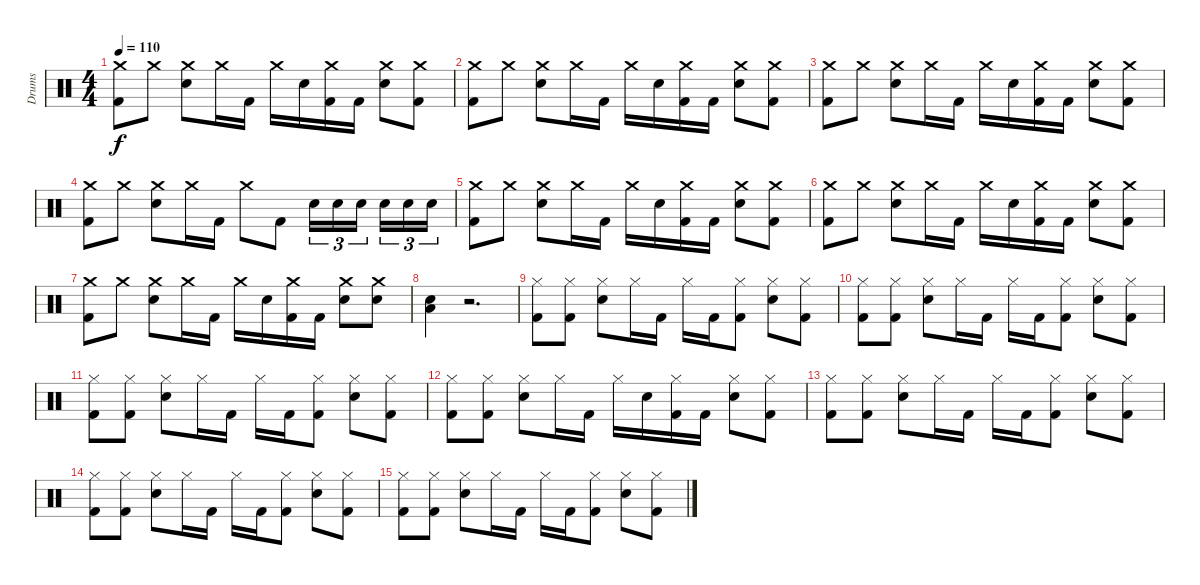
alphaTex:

\track ("Drums" "Drums") {instrument percussion}
\staff {score}
\articulation defaults
\ts (4 4)
\tempo 110
\clef neutral
\ks c
("Crash medium (hit)" "Kick (hit) 2").8{dy f} "Crash medium (hit)".8 ("Crash medium (hit)" "Electric Snare (hit)").8 "Crash medium (hit)".16 "Kick (hit) 2".16 "Crash medium (hit)".16 "Electric Snare (hit)".16 ("Crash medium (hit)" "Kick (hit) 2").16 "Kick (hit) 2".16 ("Crash medium (hit)" "Electric Snare (hit)").8 ("Crash medium (hit)" "Kick (hit) 2").8 |
("Crash medium (hit)" "Kick (hit) 2").8 "Crash medium (hit)".8 ("Crash medium (hit)" "Electric Snare (hit)").8 "Crash medium (hit)".16 "Kick (hit) 2".16 "Crash medium (hit)".16 "Electric Snare (hit)".16 ("Crash medium (hit)" "Kick (hit) 2").16 "Kick (hit) 2".16 ("Crash medium (hit)" "Electric Snare (hit)").8 ("Crash medium (hit)" "Kick (hit) 2").8 |
("Crash medium (hit)" "Kick (hit) 2").8 "Crash medium (hit)".8 ("Crash medium (hit)" "Electric Snare (hit)").8 "Crash medium (hit)".16 "Kick (hit) 2".16 "Crash medium (hit)".16 "Electric Snare (hit)".16 ("Crash medium (hit)" "Kick (hit) 2").16 "Kick (hit) 2".16 ("Crash medium (hit)" "Electric Snare (hit)").8 ("Crash medium (hit)" "Kick (hit) 2").8 |
("Crash medium (hit)" "Kick (hit) 2").8 "Crash medium (hit)".8 ("Crash medium (hit)" "Electric Snare (hit)").8 "Crash medium (hit)".16 "Kick (hit) 2".16 "Crash medium (hit)".8 "Kick (hit) 2".8 "Electric Snare (hit)".16{tu (3 2)} "Electric Snare (hit)".16{tu (3 2)} "Electric Snare (hit)".16{tu (3 2)} "Electric Snare (hit)".16{tu (3 2)} "Electric Snare (hit)".16{tu (3 2)} "Electric Snare (hit)".16{tu (3 2)} |
("Crash medium (hit)" "Kick (hit) 2").8 "Crash medium (hit)".8 ("Crash medium (hit)" "Electric Snare (hit)").8 "Crash medium (hit)".16 "Kick (hit) 2".16 "Crash medium (hit)".16 "Electric Snare (hit)".16 ("Crash medium (hit)" "Kick (hit) 2").16 "Kick (hit) 2".16 ("Crash medium (hit)" "Electric Snare (hit)").8 ("Crash medium (hit)" "Kick (hit) 2").8 |
("Crash medium (hit)" "Kick (hit) 2").8 "Crash medium (hit)".8 ("Crash medium (hit)" "Electric Snare (hit)").8 "Crash medium (hit)".16 "Kick (hit) 2".16 "Crash medium (hit)".16 "Electric Snare (hit)".16 ("Crash medium (hit)" "Kick (hit) 2").16 "Kick (hit) 2".16 ("Crash medium (hit)" "Electric Snare (hit)").8 ("Crash medium (hit)" "Kick (hit) 2").8 |
("Crash medium (hit)" "Kick (hit) 2").8 "Crash medium (hit)".8 ("Crash medium (hit)" "Electric Snare (hit)").8 "Crash medium (hit)".16 "Kick (hit) 2".16 "Crash medium (hit)".16 "Electric Snare (hit)".16 ("Crash medium (hit)" "Kick (hit) 2").16 "Kick (hit) 2".16 ("Crash medium (hit)" "Electric Snare (hit)").8 ("Crash medium (hit)" "Electric Snare (hit)").8 |
("Low Floor Tom (hit)" "Electric Snare (hit)").4 r.2{d} |
("Hi-Hat (closed)" "Kick (hit) 2").8 ("Hi-Hat (closed)" "Kick (hit) 2").8 ("Hi-Hat (closed)" "Electric Snare (hit)").8 "Hi-Hat (closed)".16 "Kick (hit) 2".16 "Hi-Hat (closed)".16 "Kick (hit) 2".16 ("Hi-Hat (closed)" "Kick (hit) 2").8 ("Hi-Hat (closed)" "Electric Snare (hit)").8 ("Hi-Hat (closed)" "Kick (hit) 2").8 |
("Hi-Hat (closed)" "Kick (hit) 2").8 ("Hi-Hat (closed)" "Kick (hit) 2").8 ("Hi-Hat (closed)" "Electric Snare (hit)").8 "Hi-Hat (closed)".16 "Kick (hit) 2".16 "Hi-Hat (closed)".16 "Kick (hit) 2".16 ("Hi-Hat (closed)" "Kick (hit) 2").8 ("Hi-Hat (closed)" "Electric Snare (hit)").8 ("Hi-Hat (closed)" "Kick (hit) 2").8 |
("Hi-Hat (closed)" "Kick (hit) 2").8 ("Hi-Hat (closed)" "Kick (hit) 2").8 ("Hi-Hat (closed)" "Electric Snare (hit)").8 "Hi-Hat (closed)".16 "Kick (hit) 2".16 "Hi-Hat (closed)".16 "Kick (hit) 2".16 ("Hi-Hat (closed)" "Kick (hit) 2").8 ("Hi-Hat (closed)" "Electric Snare (hit)").8 ("Hi-Hat (closed)" "Kick (hit) 2").8 |
("Hi-Hat (closed)" "Kick (hit) 2").8 ("Hi-Hat (closed)" "Kick (hit) 2").8 ("Hi-Hat (closed)" "Electric Snare (hit)").8 "Hi-Hat (closed)".16 "Kick (hit) 2".16 "Hi-Hat (closed)".16 "Electric Snare (hit)".16 ("Hi-Hat (closed)" "Kick (hit) 2").16 "Kick (hit) 2".16 ("Hi-Hat (closed)" "Electric Snare (hit)").8 ("Hi-Hat (closed)" "Kick (hit) 2").8 |
("Hi-Hat (closed)" "Kick (hit) 2").8 ("Hi-Hat (closed)" "Kick (hit) 2").8 ("Hi-Hat (closed)" "Electric Snare (hit)").8 "Hi-Hat (closed)".16 "Kick (hit) 2".16 "Hi-Hat (closed)".16 "Kick (hit) 2".16 ("Hi-Hat (closed)" "Kick (hit) 2").8 ("Hi-Hat (closed)" "Electric Snare (hit)").8 ("Hi-Hat (closed)" "Kick (hit) 2").8 |
("Hi-Hat (closed)" "Kick (hit) 2").8 ("Hi-Hat (closed)" "Kick (hit) 2").8 ("Hi-Hat (closed)" "Electric Snare (hit)").8 "Hi-Hat (closed)".16 "Kick (hit) 2".16 "Hi-Hat (closed)".16 "Kick (hit) 2".16 ("Hi-Hat (closed)" "Kick (hit) 2").8 ("Hi-Hat (closed)" "Electric Snare (hit)").8 ("Hi-Hat (closed)" "Kick (hit) 2").8 |
("Hi-Hat (closed)" "Kick (hit) 2").8 ("Hi-Hat (closed)" "Kick (hit) 2").8 ("Hi-Hat (closed)" "Electric Snare (hit)").8 "Hi-Hat (closed)".16 "Kick (hit) 2".16 "Hi-Hat (closed)".16 "Kick (hit) 2".16 ("Hi-Hat (closed)" "Kick (hit) 2").8 ("Hi-Hat (closed)" "Electric Snare (hit)").8 ("Hi-Hat (closed)" "Kick (hit) 2").8
